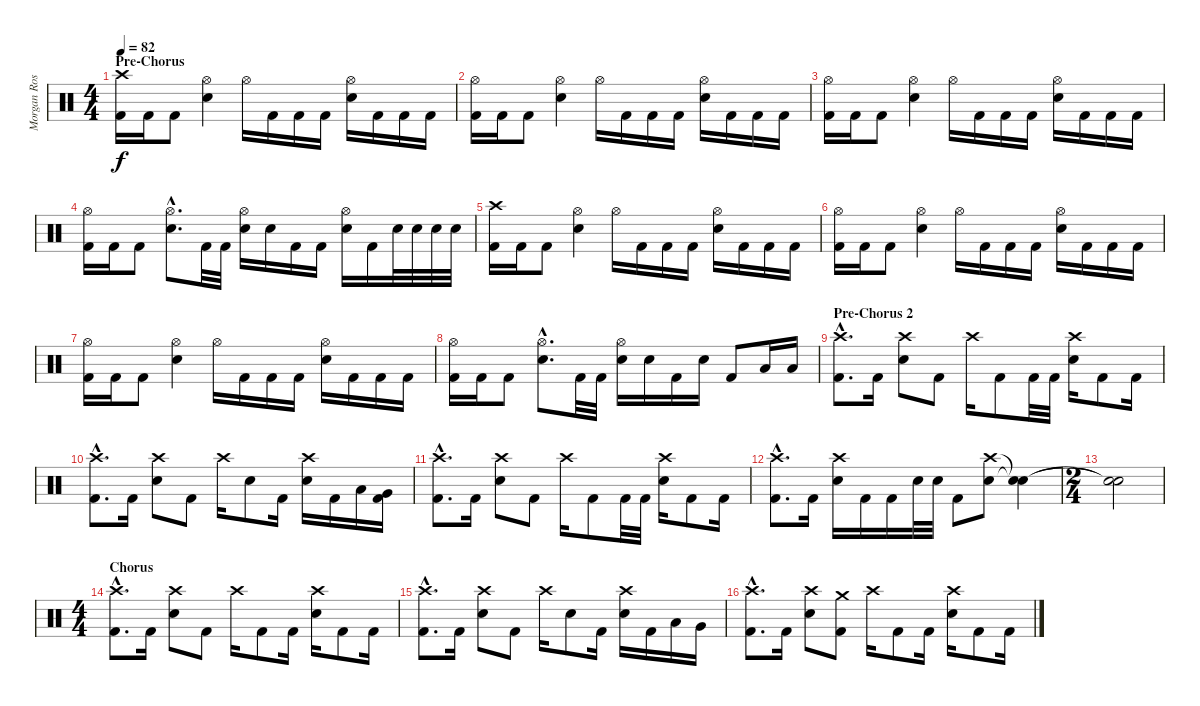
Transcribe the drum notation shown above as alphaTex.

\track ("Morgan Rose" "Morgan Ros") {instrument percussion}
\staff {score}
\articulation defaults
\ts (4 4)
\section ("" "Pre-Chorus")
\tempo 82
\clef neutral
\ks c
("Crash high (hit)" "Kick (hit) 2").16{dy f} "Kick (hit) 2".16 "Kick (hit) 2".8 ("Hi-Hat (open)" "Electric Snare (hit)").4 "Hi-Hat (open)".16 "Kick (hit) 2".16 "Kick (hit) 2".16 "Kick (hit) 2".16 ("Hi-Hat (open)" "Electric Snare (hit)").16 "Kick (hit) 2".16 "Kick (hit) 2".16 "Kick (hit) 2".16 |
("Hi-Hat (open)" "Kick (hit) 2").16 "Kick (hit) 2".16 "Kick (hit) 2".8 ("Hi-Hat (open)" "Electric Snare (hit)").4 "Hi-Hat (open)".16 "Kick (hit) 2".16 "Kick (hit) 2".16 "Kick (hit) 2".16 ("Hi-Hat (open)" "Electric Snare (hit)").16 "Kick (hit) 2".16 "Kick (hit) 2".16 "Kick (hit) 2".16 |
("Hi-Hat (open)" "Kick (hit) 2").16 "Kick (hit) 2".16 "Kick (hit) 2".8 ("Hi-Hat (open)" "Electric Snare (hit)").4 "Hi-Hat (open)".16 "Kick (hit) 2".16 "Kick (hit) 2".16 "Kick (hit) 2".16 ("Hi-Hat (open)" "Electric Snare (hit)").16 "Kick (hit) 2".16 "Kick (hit) 2".16 "Kick (hit) 2".16 |
("Hi-Hat (open)" "Kick (hit) 2").16 "Kick (hit) 2".16 "Kick (hit) 2".8 ("Hi-Hat (open)"{hac} "Electric Snare (hit)"{hac}).8{d} "Kick (hit) 2".32 "Kick (hit) 2".32 ("Hi-Hat (open)" "Electric Snare (hit)").16 "Electric Snare (hit)".16 "Kick (hit) 2".16 "Kick (hit) 2".16 ("Hi-Hat (open)" "Electric Snare (hit)").16 "Kick (hit) 2".16 "Electric Snare (hit)".32 "Electric Snare (hit)".32 "Electric Snare (hit)".32 "Electric Snare (hit)".32 |
("Crash high (hit)" "Kick (hit) 2").16 "Kick (hit) 2".16 "Kick (hit) 2".8 ("Hi-Hat (open)" "Electric Snare (hit)").4 "Hi-Hat (open)".16 "Kick (hit) 2".16 "Kick (hit) 2".16 "Kick (hit) 2".16 ("Hi-Hat (open)" "Electric Snare (hit)").16 "Kick (hit) 2".16 "Kick (hit) 2".16 "Kick (hit) 2".16 |
("Hi-Hat (open)" "Kick (hit) 2").16 "Kick (hit) 2".16 "Kick (hit) 2".8 ("Hi-Hat (open)" "Electric Snare (hit)").4 "Hi-Hat (open)".16 "Kick (hit) 2".16 "Kick (hit) 2".16 "Kick (hit) 2".16 ("Hi-Hat (open)" "Electric Snare (hit)").16 "Kick (hit) 2".16 "Kick (hit) 2".16 "Kick (hit) 2".16 |
("Hi-Hat (open)" "Kick (hit) 2").16 "Kick (hit) 2".16 "Kick (hit) 2".8 ("Hi-Hat (open)" "Electric Snare (hit)").4 "Hi-Hat (open)".16 "Kick (hit) 2".16 "Kick (hit) 2".16 "Kick (hit) 2".16 ("Hi-Hat (open)" "Electric Snare (hit)").16 "Kick (hit) 2".16 "Kick (hit) 2".16 "Kick (hit) 2".16 |
("Hi-Hat (open)" "Kick (hit) 2").16 "Kick (hit) 2".16 "Kick (hit) 2".8 ("Hi-Hat (open)"{hac} "Electric Snare (hit)"{hac}).8{d} "Kick (hit) 2".32 "Kick (hit) 2".32 ("Hi-Hat (open)" "Electric Snare (hit)").16 "Electric Snare (hit)".16 "Kick (hit) 2".16 "Electric Snare (hit)".16 "Kick (hit) 2".8 "Low Tom (hit)".16 "Low Tom (hit)".16 |
\section ("" "Pre-Chorus 2")
("Crash high (hit)"{hac} "Kick (hit) 2"{hac}).8{d} "Kick (hit) 2".16 ("Crash high (hit)" "Electric Snare (hit)").8 "Kick (hit) 2".8 "Crash high (hit)".16 "Kick (hit) 2".8 "Kick (hit) 2".32 "Kick (hit) 2".32 ("Crash high (hit)" "Electric Snare (hit)").16 "Kick (hit) 2".8 "Kick (hit) 2".16 |
("Crash high (hit)"{hac} "Kick (hit) 2"{hac}).8{d} "Kick (hit) 2".16 ("Crash high (hit)" "Electric Snare (hit)").8 "Kick (hit) 2".8 "Crash high (hit)".16 "Electric Snare (hit)".8 "Kick (hit) 2".16 ("Crash high (hit)" "Electric Snare (hit)").16 "Kick (hit) 2".16 "Low Tom (hit)".16 ("Very Low Tom (hit)" "Kick (hit) 2").16 |
("Crash high (hit)"{hac} "Kick (hit) 2"{hac}).8{d} "Kick (hit) 2".16 ("Crash high (hit)" "Electric Snare (hit)").8 "Kick (hit) 2".8 "Crash high (hit)".16 "Kick (hit) 2".8 "Kick (hit) 2".32 "Kick (hit) 2".32 ("Crash high (hit)" "Electric Snare (hit)").16 "Kick (hit) 2".8 "Kick (hit) 2".16 |
("Crash high (hit)"{hac} "Kick (hit) 2"{hac}).8{d} "Kick (hit) 2".16 ("Crash high (hit)" "Electric Snare (hit)").16 "Kick (hit) 2".16 "Kick (hit) 2".16 "Electric Snare (hit)".32 "Electric Snare (hit)".32 "Kick (hit) 2".8 ("Crash high (hit)" "Electric Snare (hit)").8 ("Snare (hit)"{t} "Snare (hit)"{t}).4 |
\ts (2 4)
("Snare (hit)"{t} "Snare (hit)"{t}).2 |
\ts (4 4)
\section ("" "Chorus")
("Crash high (hit)"{hac} "Kick (hit) 2"{hac}).8{d} "Kick (hit) 2".16 ("Crash high (hit)" "Electric Snare (hit)").8 "Kick (hit) 2".8 "Crash high (hit)".16 "Kick (hit) 2".8 "Kick (hit) 2".16 ("Crash high (hit)" "Electric Snare (hit)").16 "Kick (hit) 2".8 "Kick (hit) 2".16 |
("Crash high (hit)"{hac} "Kick (hit) 2"{hac}).8{d} "Kick (hit) 2".16 ("Crash high (hit)" "Electric Snare (hit)").8 "Kick (hit) 2".8 "Crash high (hit)".16 "Electric Snare (hit)".8 "Kick (hit) 2".16 ("Crash high (hit)" "Electric Snare (hit)").16 "Kick (hit) 2".16 "Low Tom (hit)".16 "Very Low Tom (hit)".16 |
("Crash high (hit)"{hac} "Kick (hit) 2"{hac}).8{d} "Kick (hit) 2".16 ("Crash high (hit)" "Electric Snare (hit)").8 ("Crash medium (hit)" "Kick (hit) 2").8 "Crash high (hit)".16 "Kick (hit) 2".8 "Kick (hit) 2".16 ("Crash high (hit)" "Electric Snare (hit)").16 "Kick (hit) 2".8 "Kick (hit) 2".16
